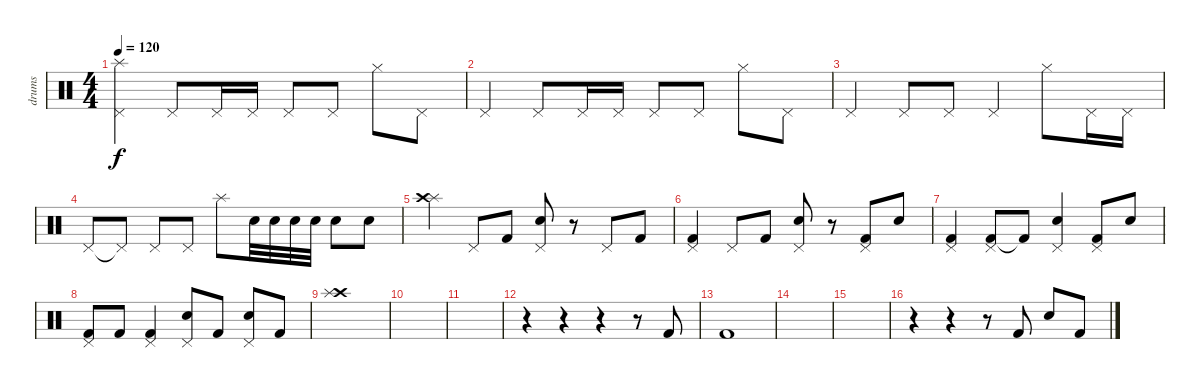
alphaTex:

\track ("drums" "drums") {instrument percussion}
\staff {score}
\articulation defaults
\ts (4 4)
\tempo 120
\clef neutral
\ks c
("Pedal Hi-Hat (hit)" "Splash (hit)").4{dy f} "Pedal Hi-Hat (hit)".8 "Pedal Hi-Hat (hit)".16 "Pedal Hi-Hat (hit)".16 "Pedal Hi-Hat (hit)".8 "Pedal Hi-Hat (hit)".8 "Hi-Hat (closed)".8 "Pedal Hi-Hat (hit)".8 |
"Pedal Hi-Hat (hit)".4 "Pedal Hi-Hat (hit)".8 "Pedal Hi-Hat (hit)".16 "Pedal Hi-Hat (hit)".16 "Pedal Hi-Hat (hit)".8 "Pedal Hi-Hat (hit)".8 "Hi-Hat (closed)".8 "Pedal Hi-Hat (hit)".8 |
"Pedal Hi-Hat (hit)".4 "Pedal Hi-Hat (hit)".8 "Pedal Hi-Hat (hit)".8 "Pedal Hi-Hat (hit)".4 "Hi-Hat (closed)".8 "Pedal Hi-Hat (hit)".16 "Pedal Hi-Hat (hit)".16 |
"Pedal Hi-Hat (hit)".8 "Pedal Hi-Hat (hit)"{t}.8 "Pedal Hi-Hat (hit)".8 "Pedal Hi-Hat (hit)".8 "Splash (hit)".8 "Snare (hit) 2".32{volume 7} "Snare (hit) 2".32 "Snare (hit) 2".32 "Snare (hit) 2".32 "Electric Snare (hit)".8{volume 16} "Electric Snare (hit)".8 |
("Splash (hit)" "Crash high (hit)").4 "Pedal Hi-Hat (hit)".8 "Kick (hit) 2".8 ("Snare (hit) 2" "Pedal Hi-Hat (hit)").8 r.8 "Pedal Hi-Hat (hit)".8 "Kick (hit) 2".8 |
("Kick (hit) 2" "Pedal Hi-Hat (hit)").4 "Pedal Hi-Hat (hit)".8 "Kick (hit) 2".8 ("Snare (hit) 2" "Pedal Hi-Hat (hit)").8 r.8 ("Kick (hit) 2" "Pedal Hi-Hat (hit)").8 "Snare (hit) 2".8 |
("Kick (hit) 2" "Pedal Hi-Hat (hit)").4 ("Kick (hit) 2" "Pedal Hi-Hat (hit)").8 "Kick (hit) 2"{t}.8 ("Snare (hit) 2" "Pedal Hi-Hat (hit)").4 ("Kick (hit) 2" "Pedal Hi-Hat (hit)").8 "Snare (hit) 2".8 |
("Kick (hit) 2" "Pedal Hi-Hat (hit)").8 "Kick (hit) 2".8 ("Kick (hit) 2" "Pedal Hi-Hat (hit)").4 ("Snare (hit) 2" "Pedal Hi-Hat (hit)").8 "Kick (hit) 2".8 ("Snare (hit) 2" "Pedal Hi-Hat (hit)").8 "Kick (hit) 2".8 |
("Crash high (hit)" "Splash (hit)").1 |
|
|
r.4 r.4 r.4 r.8 "Kick (hit) 2".8 |
"Kick (hit) 2".1 |
|
|
r.4 r.4 r.8 "Kick (hit) 2".8 "Snare (hit) 2".8 "Kick (hit) 2".8
